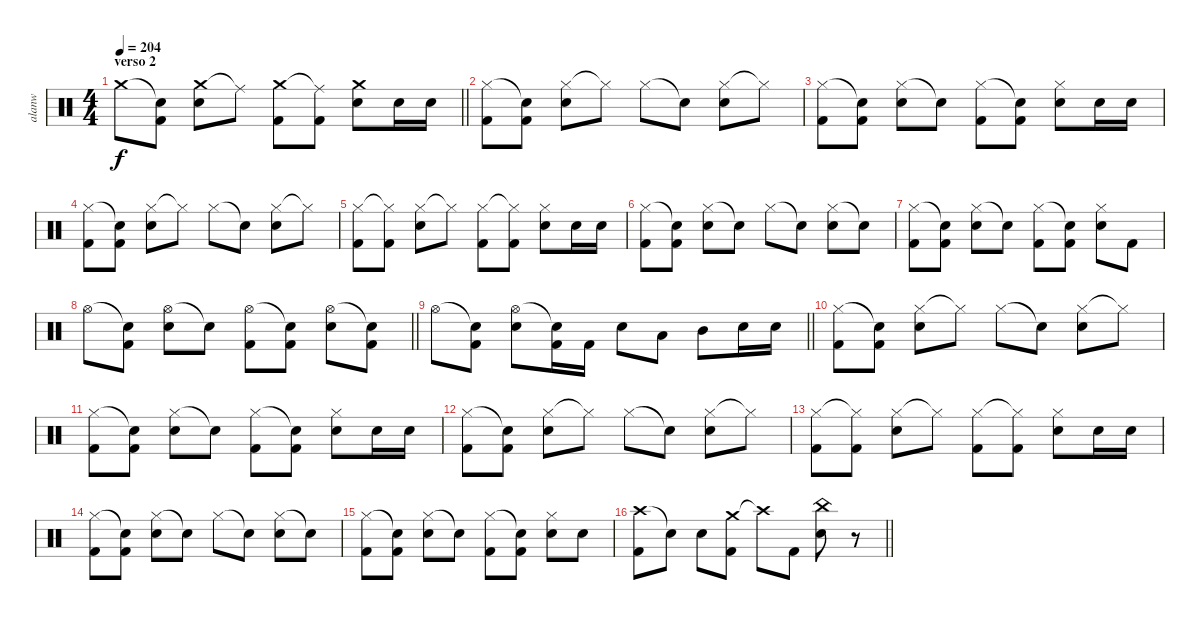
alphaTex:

\track ("alanw" "alanw") {instrument percussion}
\staff {score}
\articulation defaults
\ts (4 4)
\section ("" "verso 2")
\tempo 204
\clef neutral
\barLineRight lightlight
\ks c "Crash medium (hit)".8{dy f}
("Snare (hit)"{t} "Kick (hit) 2").8 ("Crash medium (hit)" "Electric Snare (hit)").8 "Ride (middle)"{t}.8 ("Crash medium (hit)" "Kick (hit) 2").8 ("Ride (middle)"{t} "Kick (hit) 2").8 ("Crash medium (hit)" "Electric Snare (hit)").8 "Electric Snare (hit)".16 "Electric Snare (hit)".16 |
("Hi-Hat (closed)" "Kick (hit) 2").8 ("Snare (hit)"{t} "Kick (hit) 2").8 ("Hi-Hat (closed)" "Electric Snare (hit)").8 "Hi-Hat (closed)"{t}.8 "Hi-Hat (closed)".8 "Snare (hit)"{t}.8 ("Hi-Hat (closed)" "Electric Snare (hit)").8 "Hi-Hat (closed)"{t}.8 |
("Hi-Hat (closed)" "Kick (hit) 2").8 ("Snare (hit)"{t} "Kick (hit) 2").8 ("Hi-Hat (closed)" "Electric Snare (hit)").8 "Snare (hit)"{t}.8 ("Hi-Hat (closed)" "Kick (hit) 2").8 ("Snare (hit)"{t} "Kick (hit) 2").8 ("Hi-Hat (closed)" "Electric Snare (hit)").8 "Electric Snare (hit)".16 "Electric Snare (hit)".16 |
("Hi-Hat (closed)" "Kick (hit) 2").8 ("Snare (hit)"{t} "Kick (hit) 2").8 ("Hi-Hat (closed)" "Electric Snare (hit)").8 "Hi-Hat (closed)"{t}.8 "Hi-Hat (closed)".8 "Snare (hit)"{t}.8 ("Hi-Hat (closed)" "Electric Snare (hit)").8 "Hi-Hat (closed)"{t}.8 |
("Hi-Hat (closed)" "Kick (hit) 2").8 ("Hi-Hat (closed)"{t} "Kick (hit) 2").8 ("Hi-Hat (closed)" "Electric Snare (hit)").8 "Hi-Hat (closed)"{t}.8 ("Hi-Hat (closed)" "Kick (hit) 2").8 ("Hi-Hat (closed)"{t} "Kick (hit) 2").8 ("Hi-Hat (closed)" "Electric Snare (hit)").8 "Electric Snare (hit)".16 "Electric Snare (hit)".16 |
("Hi-Hat (closed)" "Kick (hit) 2").8 ("Snare (hit)"{t} "Kick (hit) 2").8 ("Hi-Hat (closed)" "Electric Snare (hit)").8 "Snare (hit)"{t}.8 "Hi-Hat (closed)".8 "Snare (hit)"{t}.8 ("Hi-Hat (closed)" "Electric Snare (hit)").8 "Snare (hit)"{t}.8 |
("Hi-Hat (closed)" "Kick (hit) 2").8 ("Snare (hit)"{t} "Kick (hit) 2").8 ("Hi-Hat (closed)" "Electric Snare (hit)").8 "Snare (hit)"{t}.8 ("Hi-Hat (closed)" "Kick (hit) 2").8 ("Snare (hit)"{t} "Kick (hit) 2").8 ("Hi-Hat (closed)" "Electric Snare (hit)").8 "Kick (hit) 2".8 |
\barLineRight lightlight "Hi-Hat (open)".8
("Snare (hit)"{t} "Kick (hit) 2").8 ("Hi-Hat (open)" "Electric Snare (hit)").8 "Snare (hit)"{t}.8 ("Hi-Hat (open)" "Kick (hit) 2").8 ("Snare (hit)"{t} "Kick (hit) 2").8 ("Hi-Hat (open)" "Electric Snare (hit)").8 ("Snare (hit)"{t} "Kick (hit) 2").8 |
\section ("" "")
\barLineRight lightlight "Hi-Hat (open)".8
("Snare (hit)"{t} "Kick (hit) 2").8 ("Hi-Hat (open)" "Electric Snare (hit)").8 ("Snare (hit)"{t} "Kick (hit) 2").16 "Kick (hit) 2".16 "Electric Snare (hit)".8 "Low Tom (hit)".8 "Mid Tom (hit)".8 "Electric Snare (hit)".16 "Electric Snare (hit)".16 |
("Hi-Hat (closed)" "Kick (hit) 2").8 ("Snare (hit)"{t} "Kick (hit) 2").8 ("Hi-Hat (closed)" "Electric Snare (hit)").8 "Hi-Hat (closed)"{t}.8 "Hi-Hat (closed)".8 "Snare (hit)"{t}.8 ("Hi-Hat (closed)" "Electric Snare (hit)").8 "Hi-Hat (closed)"{t}.8 |
("Hi-Hat (closed)" "Kick (hit) 2").8 ("Snare (hit)"{t} "Kick (hit) 2").8 ("Hi-Hat (closed)" "Electric Snare (hit)").8 "Snare (hit)"{t}.8 ("Hi-Hat (closed)" "Kick (hit) 2").8 ("Snare (hit)"{t} "Kick (hit) 2").8 ("Hi-Hat (closed)" "Electric Snare (hit)").8 "Electric Snare (hit)".16 "Electric Snare (hit)".16 |
("Hi-Hat (closed)" "Kick (hit) 2").8 ("Snare (hit)"{t} "Kick (hit) 2").8 ("Hi-Hat (closed)" "Electric Snare (hit)").8 "Hi-Hat (closed)"{t}.8 "Hi-Hat (closed)".8 "Snare (hit)"{t}.8 ("Hi-Hat (closed)" "Electric Snare (hit)").8 "Hi-Hat (closed)"{t}.8 |
("Hi-Hat (closed)" "Kick (hit) 2").8 ("Hi-Hat (closed)"{t} "Kick (hit) 2").8 ("Hi-Hat (closed)" "Electric Snare (hit)").8 "Hi-Hat (closed)"{t}.8 ("Hi-Hat (closed)" "Kick (hit) 2").8 ("Hi-Hat (closed)"{t} "Kick (hit) 2").8 ("Hi-Hat (closed)" "Electric Snare (hit)").8 "Electric Snare (hit)".16 "Electric Snare (hit)".16 |
("Hi-Hat (closed)" "Kick (hit) 2").8 ("Snare (hit)"{t} "Kick (hit) 2").8 ("Hi-Hat (closed)" "Electric Snare (hit)").8 "Snare (hit)"{t}.8 "Hi-Hat (closed)".8 "Snare (hit)"{t}.8 ("Hi-Hat (closed)" "Electric Snare (hit)").8 "Snare (hit)"{t}.8 |
("Hi-Hat (closed)" "Kick (hit) 2").8 ("Snare (hit)"{t} "Kick (hit) 2").8 ("Hi-Hat (closed)" "Electric Snare (hit)").8 "Snare (hit)"{t}.8 ("Hi-Hat (closed)" "Kick (hit) 2").8 ("Snare (hit)"{t} "Kick (hit) 2").8 ("Hi-Hat (closed)" "Electric Snare (hit)").8 "Electric Snare (hit)".8 |
\barLineRight lightlight
("Crash high (hit)" "Kick (hit) 2").8 "Snare (hit)"{t}.8 "Electric Snare (hit)".8 ("Crash medium (hit)" "Kick (hit) 2").8 "Crash high (hit)"{t}.8 "Kick (hit) 2".8 ("China (hit)" "Electric Snare (hit)").8 r.8
